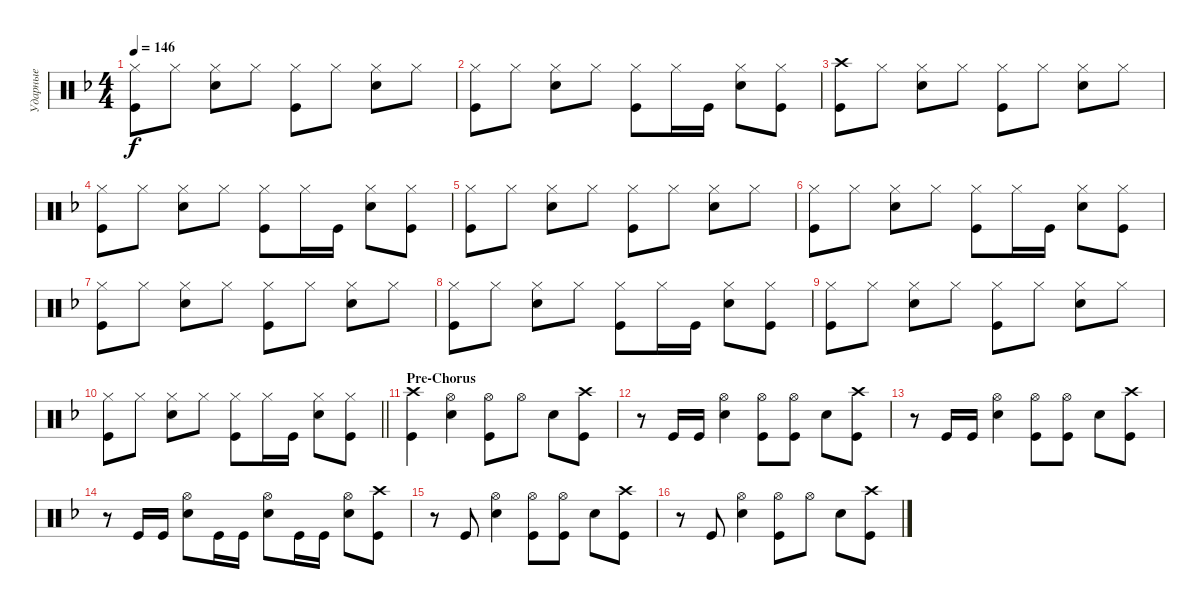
\track ("Ударные" "Ударные") {instrument percussion}
\staff {score}
\articulation defaults
\ts (4 4)
\tempo 146
\clef neutral
\ks dminor
("Kick (hit)" "Hi-Hat (closed)").8{dy f} "Hi-Hat (closed)".8 ("Hi-Hat (closed)" "Snare (hit) 2").8 "Hi-Hat (closed)".8 ("Hi-Hat (closed)" "Kick (hit)").8 "Hi-Hat (closed)".8 ("Hi-Hat (closed)" "Snare (hit) 2").8 "Hi-Hat (closed)".8 |
("Kick (hit)" "Hi-Hat (closed)").8 "Hi-Hat (closed)".8 ("Hi-Hat (closed)" "Snare (hit) 2").8 "Hi-Hat (closed)".8 ("Hi-Hat (closed)" "Kick (hit)").8 "Hi-Hat (closed)".16 "Kick (hit)".16 ("Hi-Hat (closed)" "Snare (hit) 2").8 ("Hi-Hat (closed)" "Kick (hit)").8 |
("Kick (hit)" "Crash high (hit)").8 "Hi-Hat (closed)".8 ("Hi-Hat (closed)" "Snare (hit) 2").8 "Hi-Hat (closed)".8 ("Hi-Hat (closed)" "Kick (hit)").8 "Hi-Hat (closed)".8 ("Hi-Hat (closed)" "Snare (hit) 2").8 "Hi-Hat (closed)".8 |
("Kick (hit)" "Hi-Hat (closed)").8 "Hi-Hat (closed)".8 ("Hi-Hat (closed)" "Snare (hit) 2").8 "Hi-Hat (closed)".8 ("Hi-Hat (closed)" "Kick (hit)").8 "Hi-Hat (closed)".16 "Kick (hit)".16 ("Hi-Hat (closed)" "Snare (hit) 2").8 ("Hi-Hat (closed)" "Kick (hit)").8 |
("Kick (hit)" "Hi-Hat (closed)").8 "Hi-Hat (closed)".8 ("Hi-Hat (closed)" "Snare (hit) 2").8 "Hi-Hat (closed)".8 ("Hi-Hat (closed)" "Kick (hit)").8 "Hi-Hat (closed)".8 ("Hi-Hat (closed)" "Snare (hit) 2").8 "Hi-Hat (closed)".8 |
("Kick (hit)" "Hi-Hat (closed)").8 "Hi-Hat (closed)".8 ("Hi-Hat (closed)" "Snare (hit) 2").8 "Hi-Hat (closed)".8 ("Hi-Hat (closed)" "Kick (hit)").8 "Hi-Hat (closed)".16 "Kick (hit)".16 ("Hi-Hat (closed)" "Snare (hit) 2").8 ("Hi-Hat (closed)" "Kick (hit)").8 |
("Kick (hit)" "Hi-Hat (closed)").8 "Hi-Hat (closed)".8 ("Hi-Hat (closed)" "Snare (hit) 2").8 "Hi-Hat (closed)".8 ("Hi-Hat (closed)" "Kick (hit)").8 "Hi-Hat (closed)".8 ("Hi-Hat (closed)" "Snare (hit) 2").8 "Hi-Hat (closed)".8 |
("Kick (hit)" "Hi-Hat (closed)").8 "Hi-Hat (closed)".8 ("Hi-Hat (closed)" "Snare (hit) 2").8 "Hi-Hat (closed)".8 ("Hi-Hat (closed)" "Kick (hit)").8 "Hi-Hat (closed)".16 "Kick (hit)".16 ("Hi-Hat (closed)" "Snare (hit) 2").8 ("Hi-Hat (closed)" "Kick (hit)").8 |
("Kick (hit)" "Hi-Hat (closed)").8 "Hi-Hat (closed)".8 ("Hi-Hat (closed)" "Snare (hit) 2").8 "Hi-Hat (closed)".8 ("Hi-Hat (closed)" "Kick (hit)").8 "Hi-Hat (closed)".8 ("Hi-Hat (closed)" "Snare (hit) 2").8 "Hi-Hat (closed)".8 |
\barLineRight lightlight
("Kick (hit)" "Hi-Hat (closed)").8 "Hi-Hat (closed)".8 ("Hi-Hat (closed)" "Snare (hit) 2").8 "Hi-Hat (closed)".8 ("Hi-Hat (closed)" "Kick (hit)").8 "Hi-Hat (closed)".16 "Kick (hit)".16 ("Hi-Hat (closed)" "Snare (hit) 2").8 ("Hi-Hat (closed)" "Kick (hit)").8 |
\section ("" "Pre-Chorus")
("Kick (hit)" "Crash high (hit)").4 ("Snare (hit) 2" "Hi-Hat (open)").4 ("Kick (hit)" "Hi-Hat (open)").8 "Hi-Hat (open)".8 "Snare (hit) 2".8 ("Kick (hit)" "Crash high (hit)").8 |
r.8 "Kick (hit)".16 "Kick (hit)".16 ("Snare (hit) 2" "Hi-Hat (open)").4 ("Kick (hit)" "Hi-Hat (open)").8 ("Kick (hit)" "Hi-Hat (open)").8 "Snare (hit) 2".8 ("Kick (hit)" "Crash high (hit)").8 |
r.8 "Kick (hit)".16 "Kick (hit)".16 ("Snare (hit) 2" "Hi-Hat (open)").4 ("Kick (hit)" "Hi-Hat (open)").8 ("Kick (hit)" "Hi-Hat (open)").8 "Snare (hit) 2".8 ("Kick (hit)" "Crash high (hit)").8 |
r.8 "Kick (hit)".16 "Kick (hit)".16 ("Snare (hit) 2" "Hi-Hat (open)").8 "Kick (hit)".16 "Kick (hit)".16 ("Snare (hit) 2" "Hi-Hat (open)").8 "Kick (hit)".16 "Kick (hit)".16 ("Snare (hit) 2" "Hi-Hat (open)").8 ("Kick (hit)" "Crash high (hit)").8 |
r.8 "Kick (hit)".8 ("Snare (hit) 2" "Hi-Hat (open)").4 ("Kick (hit)" "Hi-Hat (open)").8 ("Hi-Hat (open)" "Kick (hit)").8 "Snare (hit) 2".8 ("Kick (hit)" "Crash high (hit)").8 |
r.8 "Kick (hit)".8 ("Snare (hit) 2" "Hi-Hat (open)").4 ("Kick (hit)" "Hi-Hat (open)").8 "Hi-Hat (open)".8 "Snare (hit) 2".8 ("Kick (hit)" "Crash high (hit)").8
